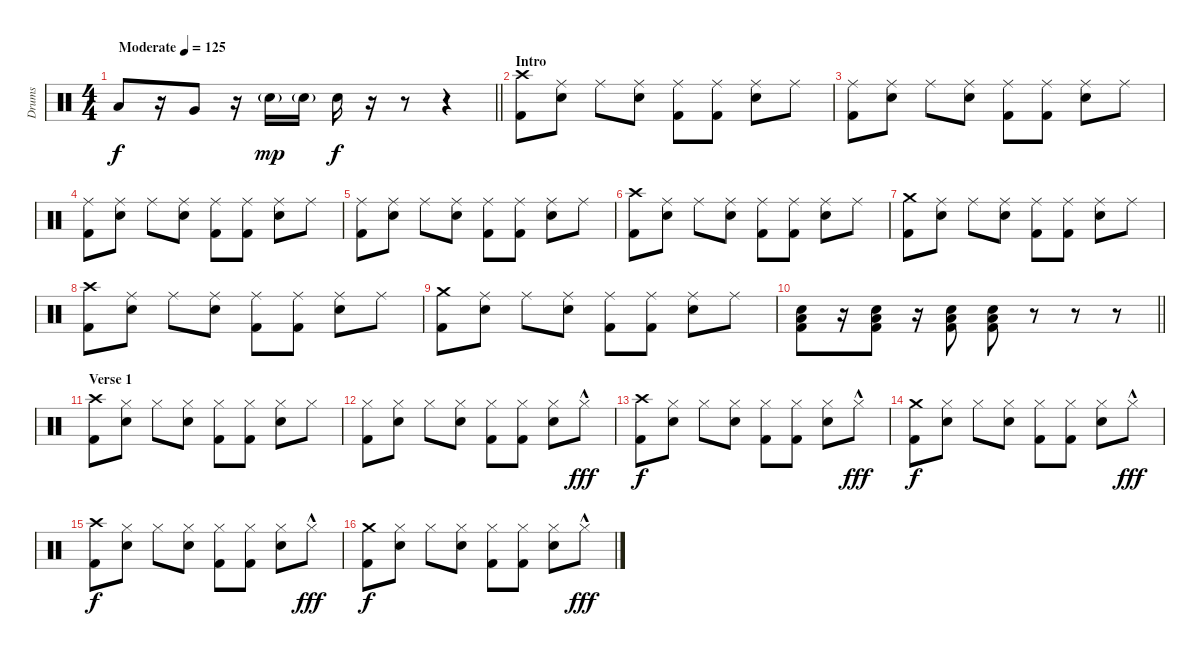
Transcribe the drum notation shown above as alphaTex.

\track ("Drums" "Drums") {instrument percussion}
\staff {score}
\articulation defaults
\ts (4 4)
\tempo (125 "Moderate")
\clef neutral
\barLineRight lightlight
\ks c "Low Tom (hit)".8{dy f}
r.16 "Very Low Tom (hit)".8 r.16 "Snare (hit) 2"{g}.16{dy mp} "Snare (hit) 2"{g}.16 "Snare (hit) 2".16{dy f} r.16 r.8 r.4 |
\section ("" "Intro")
("Crash high (hit)" "Kick (hit) 2").8 ("Ride (middle)" "Snare (hit) 2").8 "Ride (middle)".8 ("Ride (middle)" "Snare (hit) 2").8 ("Ride (middle)" "Kick (hit) 2").8 ("Ride (middle)" "Kick (hit) 2").8 ("Ride (middle)" "Snare (hit) 2").8 "Ride (middle)".8 |
("Ride (middle)" "Kick (hit) 2").8 ("Ride (middle)" "Snare (hit) 2").8 "Ride (middle)".8 ("Ride (middle)" "Snare (hit) 2").8 ("Ride (middle)" "Kick (hit) 2").8 ("Ride (middle)" "Kick (hit) 2").8 ("Ride (middle)" "Snare (hit) 2").8 "Ride (middle)".8 |
("Ride (middle)" "Kick (hit) 2").8 ("Ride (middle)" "Snare (hit) 2").8 "Ride (middle)".8 ("Ride (middle)" "Snare (hit) 2").8 ("Ride (middle)" "Kick (hit) 2").8 ("Ride (middle)" "Kick (hit) 2").8 ("Ride (middle)" "Snare (hit) 2").8 "Ride (middle)".8 |
("Ride (middle)" "Kick (hit) 2").8 ("Ride (middle)" "Snare (hit) 2").8 "Ride (middle)".8 ("Ride (middle)" "Snare (hit) 2").8 ("Ride (middle)" "Kick (hit) 2").8 ("Ride (middle)" "Kick (hit) 2").8 ("Ride (middle)" "Snare (hit) 2").8 "Ride (middle)".8 |
("Crash high (hit)" "Kick (hit) 2").8 ("Ride (middle)" "Snare (hit) 2").8 "Ride (middle)".8 ("Ride (middle)" "Snare (hit) 2").8 ("Ride (middle)" "Kick (hit) 2").8 ("Ride (middle)" "Kick (hit) 2").8 ("Ride (middle)" "Snare (hit) 2").8 "Ride (middle)".8 |
("Crash medium (hit)" "Kick (hit) 2").8 ("Ride (middle)" "Snare (hit) 2").8 "Ride (middle)".8 ("Ride (middle)" "Snare (hit) 2").8 ("Ride (middle)" "Kick (hit) 2").8 ("Ride (middle)" "Kick (hit) 2").8 ("Ride (middle)" "Snare (hit) 2").8 "Ride (middle)".8 |
("Crash high (hit)" "Kick (hit) 2").8 ("Ride (middle)" "Snare (hit) 2").8 "Ride (middle)".8 ("Ride (middle)" "Snare (hit) 2").8 ("Ride (middle)" "Kick (hit) 2").8 ("Ride (middle)" "Kick (hit) 2").8 ("Ride (middle)" "Snare (hit) 2").8 "Ride (middle)".8 |
("Crash medium (hit)" "Kick (hit) 2").8 ("Ride (middle)" "Snare (hit) 2").8 "Ride (middle)".8 ("Ride (middle)" "Snare (hit) 2").8 ("Ride (middle)" "Kick (hit) 2").8 ("Ride (middle)" "Kick (hit) 2").8 ("Ride (middle)" "Snare (hit) 2").8 "Ride (middle)".8 |
\barLineRight lightlight
("Low Floor Tom (hit)" "Snare (hit) 2" "Kick (hit) 2").8 r.16 ("Low Floor Tom (hit)" "Snare (hit) 2" "Kick (hit) 2").8 r.16 ("Low Floor Tom (hit)" "Snare (hit) 2" "Kick (hit) 2").8 ("Low Floor Tom (hit)" "Snare (hit) 2" "Kick (hit) 2").8 r.8 r.8 r.8 |
\section ("" "Verse 1")
("Crash high (hit)" "Kick (hit) 2").8 ("Hi-Hat (closed)" "Snare (hit) 2").8 "Hi-Hat (closed)".8 ("Hi-Hat (closed)" "Snare (hit) 2").8 ("Hi-Hat (closed)" "Kick (hit) 2").8 ("Hi-Hat (closed)" "Kick (hit) 2").8 ("Hi-Hat (closed)" "Snare (hit) 2").8 "Hi-Hat (closed)".8 |
("Hi-Hat (closed)" "Kick (hit) 2").8 ("Hi-Hat (closed)" "Snare (hit) 2").8 "Hi-Hat (closed)".8 ("Hi-Hat (closed)" "Snare (hit) 2").8 ("Hi-Hat (closed)" "Kick (hit) 2").8 ("Hi-Hat (closed)" "Kick (hit) 2").8 ("Hi-Hat (closed)" "Snare (hit) 2").8 "Hi-Hat (closed)"{hac}.8{dy fff} |
("Crash high (hit)" "Kick (hit) 2").8{dy f} ("Hi-Hat (closed)" "Snare (hit) 2").8 "Hi-Hat (closed)".8 ("Hi-Hat (closed)" "Snare (hit) 2").8 ("Hi-Hat (closed)" "Kick (hit) 2").8 ("Hi-Hat (closed)" "Kick (hit) 2").8 ("Hi-Hat (closed)" "Snare (hit) 2").8 "Hi-Hat (closed)"{hac}.8{dy fff} |
("Crash medium (hit)" "Kick (hit) 2").8{dy f} ("Hi-Hat (closed)" "Snare (hit) 2").8 "Hi-Hat (closed)".8 ("Hi-Hat (closed)" "Snare (hit) 2").8 ("Hi-Hat (closed)" "Kick (hit) 2").8 ("Hi-Hat (closed)" "Kick (hit) 2").8 ("Hi-Hat (closed)" "Snare (hit) 2").8 "Hi-Hat (closed)"{hac}.8{dy fff} |
("Crash high (hit)" "Kick (hit) 2").8{dy f} ("Hi-Hat (closed)" "Snare (hit) 2").8 "Hi-Hat (closed)".8 ("Hi-Hat (closed)" "Snare (hit) 2").8 ("Hi-Hat (closed)" "Kick (hit) 2").8 ("Hi-Hat (closed)" "Kick (hit) 2").8 ("Hi-Hat (closed)" "Snare (hit) 2").8 "Hi-Hat (closed)"{hac}.8{dy fff} |
("Crash medium (hit)" "Kick (hit) 2").8{dy f} ("Hi-Hat (closed)" "Snare (hit) 2").8 "Hi-Hat (closed)".8 ("Hi-Hat (closed)" "Snare (hit) 2").8 ("Hi-Hat (closed)" "Kick (hit) 2").8 ("Hi-Hat (closed)" "Kick (hit) 2").8 ("Hi-Hat (closed)" "Snare (hit) 2").8 "Hi-Hat (closed)"{hac}.8{dy fff}
